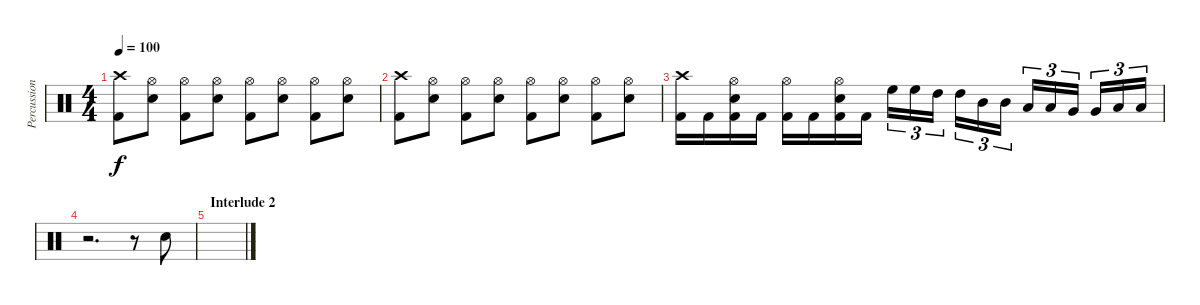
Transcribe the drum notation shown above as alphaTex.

\track ("Percussion" "Percussion") {instrument percussion}
\staff {score}
\articulation defaults
\ts (4 4)
\tempo 100
\clef neutral
\ks c
("Crash high (hit)" "Kick (hit) 2").8{dy f} ("Hi-Hat (open)" "Electric Snare (hit)").8 ("Hi-Hat (open)" "Kick (hit) 2").8 ("Hi-Hat (open)" "Electric Snare (hit)").8 ("Hi-Hat (open)" "Kick (hit) 2").8 ("Hi-Hat (open)" "Electric Snare (hit)").8 ("Hi-Hat (open)" "Kick (hit) 2").8 ("Hi-Hat (open)" "Electric Snare (hit)").8 |
("Crash high (hit)" "Kick (hit) 2").8 ("Hi-Hat (open)" "Electric Snare (hit)").8 ("Hi-Hat (open)" "Kick (hit) 2").8 ("Hi-Hat (open)" "Electric Snare (hit)").8 ("Hi-Hat (open)" "Kick (hit) 2").8 ("Hi-Hat (open)" "Electric Snare (hit)").8 ("Hi-Hat (open)" "Kick (hit) 2").8 ("Hi-Hat (open)" "Electric Snare (hit)").8 |
("Crash high (hit)" "Kick (hit) 2").16 "Kick (hit) 2".16 ("Hi-Hat (open)" "Electric Snare (hit)" "Kick (hit) 2").16 "Kick (hit) 2".16 ("Hi-Hat (open)" "Kick (hit) 2").16 "Kick (hit) 2".16 ("Hi-Hat (open)" "Electric Snare (hit)" "Kick (hit) 2").16 "Kick (hit) 2".16 "High Floor Tom (hit)".16{tu (3 2)} "High Floor Tom (hit)".16{tu (3 2)} "High Tom (hit)".16{tu (3 2)} "High Tom (hit)".16{tu (3 2)} "Mid Tom (hit)".16{tu (3 2)} "Mid Tom (hit)".16{tu (3 2)} "Low Tom (hit)".16{tu (3 2)} "Low Tom (hit)".16{tu (3 2)} "Very Low Tom (hit)".16{tu (3 2)} "Very Low Tom (hit)".16{tu (3 2)} "Low Floor Tom (hit)".16{tu (3 2)} "Low Floor Tom (hit)".16{tu (3 2)} |
r.2{d} r.8 "Electric Snare (hit)".8 |
\section ("" "Interlude 2")
